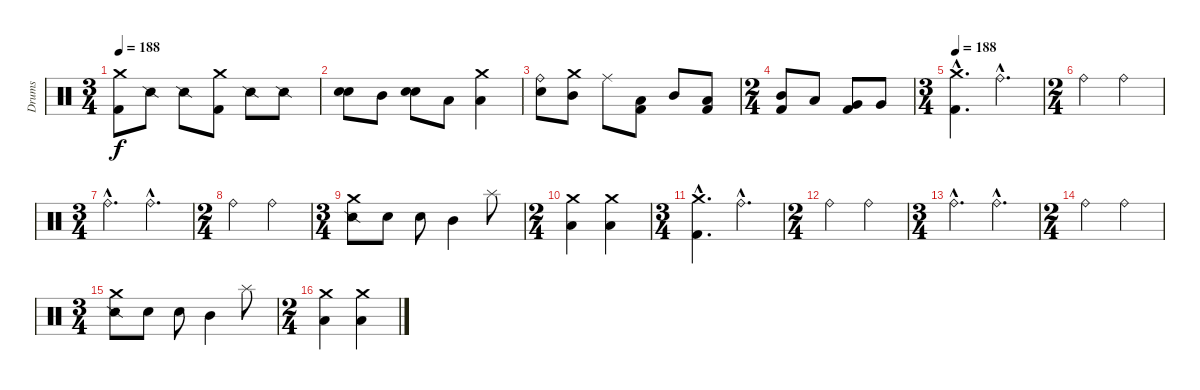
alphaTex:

\track ("Drums" "Drums") {instrument percussion}
\staff {score}
\articulation defaults
\ts (3 4)
\tempo 188
\clef neutral
\ks c
("Crash medium (hit)" "Kick (hit) 2").8{dy f} "Snare (side stick) 2".8 "Snare (side stick) 2".8 ("Crash medium (hit)" "Kick (hit) 2").8 "Snare (side stick) 2".8 "Snare (side stick) 2".8 |
("Electric Snare (hit)" "Electric Snare (hit)").8 "Mid Tom (hit)".8 ("Electric Snare (hit)" "Electric Snare (hit)").8 "Low Tom (hit)".8 ("Crash medium (hit)" "Low Floor Tom (hit)").4 |
("Electric Snare (hit)" "Ride (bell)").8 ("Crash medium (hit)" "Mid Tom (hit)").8 "Ride (middle)".8 ("Low Tom (hit)" "Kick (hit) 2").8 "Mid Tom (hit)".8 ("Low Tom (hit)" "Kick (hit) 2").8 |
\ts (2 4)
("Mid Tom (hit)" "Kick (hit) 2").8 "Low Tom (hit)".8 ("Very Low Tom (hit)" "Kick (hit) 2").8 "Very Low Tom (hit)".8 |
\ts (3 4)
\tempo 188
("Crash medium (hit)"{hac} "Kick (hit) 2"{hac}).4{d} "Ride (bell)"{hac}.4{d} |
\ts (2 4)
"Ride (bell)".4 "Ride (bell)".4 |
\ts (3 4)
"Ride (bell)"{hac}.4{d} "Ride (bell)"{hac}.4{d} |
\ts (2 4)
"Ride (bell)".4 "Ride (bell)".4 |
\ts (3 4)
("Snare (side stick) 2" "Crash medium (hit)").8 "Electric Snare (hit)".8 "Snare (hit) 2".8 "Mid Tom (hit)".4 "Splash (hit)".8 |
\ts (2 4)
("Crash medium (hit)" "Low Tom (hit)").4 ("Crash medium (hit)" "Low Tom (hit)").4 |
\ts (3 4)
("Crash medium (hit)"{hac} "Kick (hit) 2"{hac}).4{d} "Ride (bell)"{hac}.4{d} |
\ts (2 4)
"Ride (bell)".4 "Ride (bell)".4 |
\ts (3 4)
"Ride (bell)"{hac}.4{d} "Ride (bell)"{hac}.4{d} |
\ts (2 4)
"Ride (bell)".4 "Ride (bell)".4 |
\ts (3 4)
("Snare (side stick) 2" "Crash medium (hit)").8 "Electric Snare (hit)".8 "Snare (hit) 2".8 "Mid Tom (hit)".4 "Splash (hit)".8 |
\ts (2 4)
("Crash medium (hit)" "Low Tom (hit)").4 ("Crash medium (hit)" "Low Tom (hit)").4
